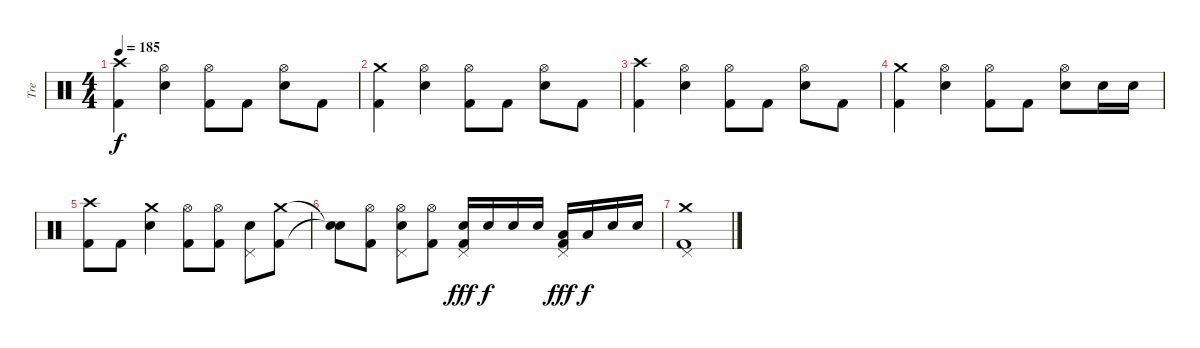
\track ("Tre" "Tre") {instrument percussion}
\staff {score}
\articulation defaults
\ts (4 4)
\tempo 185
\clef neutral
\ks c
("Crash high (hit)" "Kick (hit) 2").4{dy f} ("Hi-Hat (open)" "Snare (hit) 2").4 ("Hi-Hat (open)" "Kick (hit) 2").8 "Kick (hit) 2".8 ("Hi-Hat (open)" "Snare (hit) 2").8 "Kick (hit) 2".8 |
("Crash medium (hit)" "Kick (hit) 2").4 ("Hi-Hat (open)" "Snare (hit) 2").4 ("Hi-Hat (open)" "Kick (hit) 2").8 "Kick (hit) 2".8 ("Hi-Hat (open)" "Snare (hit) 2").8 "Kick (hit) 2".8 |
("Crash high (hit)" "Kick (hit) 2").4 ("Hi-Hat (open)" "Snare (hit) 2").4 ("Hi-Hat (open)" "Kick (hit) 2").8 "Kick (hit) 2".8 ("Hi-Hat (open)" "Snare (hit) 2").8 "Kick (hit) 2".8 |
("Crash medium (hit)" "Kick (hit) 2").4 ("Hi-Hat (open)" "Snare (hit) 2").4 ("Hi-Hat (open)" "Kick (hit) 2").8 "Kick (hit) 2".8 ("Hi-Hat (open)" "Snare (hit) 2").8 "Snare (hit) 2".16 "Snare (hit) 2".16 |
("Crash high (hit)" "Kick (hit) 2").8 "Kick (hit) 2".8 ("Crash medium (hit)" "Snare (hit) 2").4 ("Hi-Hat (open)" "Kick (hit) 2").8 ("Hi-Hat (open)" "Kick (hit) 2").8 ("Snare (hit) 2" "Pedal Hi-Hat (hit)").8 ("Crash medium (hit)" "Kick (hit) 2").8 |
("Snare (hit)"{t} "Snare (hit)"{t}).8 ("Hi-Hat (open)" "Kick (hit) 2").8 ("Hi-Hat (open)" "Snare (hit) 2" "Pedal Hi-Hat (hit)").8 ("Hi-Hat (open)" "Kick (hit) 2").8 ("Snare (hit) 2" "Pedal Hi-Hat (hit)" "Kick (hit) 2").16{dy fff} "Snare (hit) 2".16{dy f} "Snare (hit) 2".16 "Snare (hit) 2".16 ("Low Tom (hit)" "Pedal Hi-Hat (hit)" "Kick (hit) 2").16{dy fff} "Low Tom (hit)".16{dy f} "Snare (hit) 2".16 "Snare (hit) 2".16 |
("Crash medium (hit)" "Pedal Hi-Hat (hit)" "Kick (hit) 2").1
